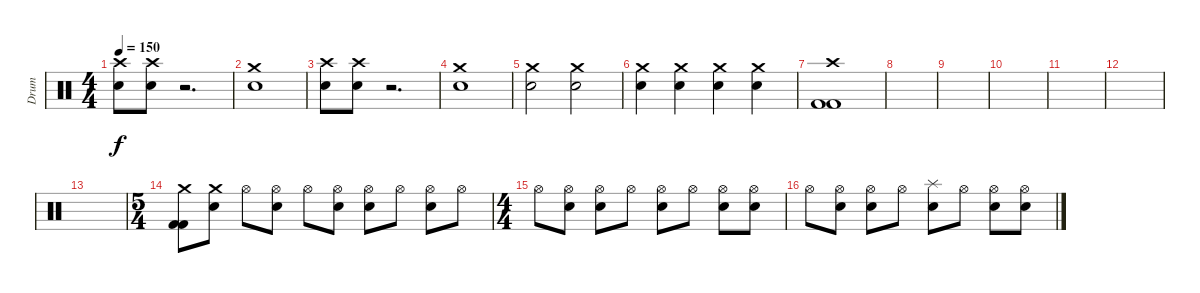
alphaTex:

\track ("Drum" "Drum") {instrument percussion}
\staff {score}
\articulation defaults
\ts (4 4)
\tempo 150
\clef neutral
\ks c
("Crash high (hit)" "Electric Snare (hit)").8{dy f} ("Crash high (hit)" "Electric Snare (hit)").8 r.2{d} |
("Crash medium (hit)" "Electric Snare (hit)").1 |
("Crash high (hit)" "Electric Snare (hit)").8 ("Crash high (hit)" "Electric Snare (hit)").8 r.2{d} |
("Crash medium (hit)" "Electric Snare (hit)").1 |
("Crash medium (hit)" "Electric Snare (hit)").2 ("Crash medium (hit)" "Electric Snare (hit)").2 |
("Crash medium (hit)" "Electric Snare (hit)").4 ("Crash medium (hit)" "Electric Snare (hit)").4 ("Crash medium (hit)" "Electric Snare (hit)").4 ("Crash medium (hit)" "Electric Snare (hit)").4 |
("Crash high (hit)" "Kick (hit) 2" "Kick (hit) 2").1 |
|
|
|
|
|
|
\ts (5 4)
("Crash medium (hit)" "Kick (hit) 2" "Kick (hit) 2").8 ("Crash medium (hit)" "Electric Snare (hit)").8 "Hi-Hat (open)".8 ("Hi-Hat (open)" "Electric Snare (hit)").8 "Hi-Hat (open)".8 ("Hi-Hat (open)" "Electric Snare (hit)").8 ("Hi-Hat (open)" "Electric Snare (hit)").8 "Hi-Hat (open)".8 ("Hi-Hat (open)" "Electric Snare (hit)").8 "Hi-Hat (open)".8 |
\ts (4 4)
"Hi-Hat (open)".8 ("Hi-Hat (open)" "Electric Snare (hit)").8 ("Hi-Hat (open)" "Electric Snare (hit)").8 "Hi-Hat (open)".8 ("Hi-Hat (open)" "Electric Snare (hit)").8 "Hi-Hat (open)".8 ("Hi-Hat (open)" "Electric Snare (hit)").8 ("Hi-Hat (open)" "Electric Snare (hit)").8 |
"Hi-Hat (open)".8 ("Hi-Hat (open)" "Electric Snare (hit)").8 ("Hi-Hat (open)" "Electric Snare (hit)").8 "Hi-Hat (open)".8 ("Splash (hit)" "Electric Snare (hit)").8 "Hi-Hat (open)".8 ("Hi-Hat (open)" "Electric Snare (hit)").8 ("Hi-Hat (open)" "Electric Snare (hit)").8
